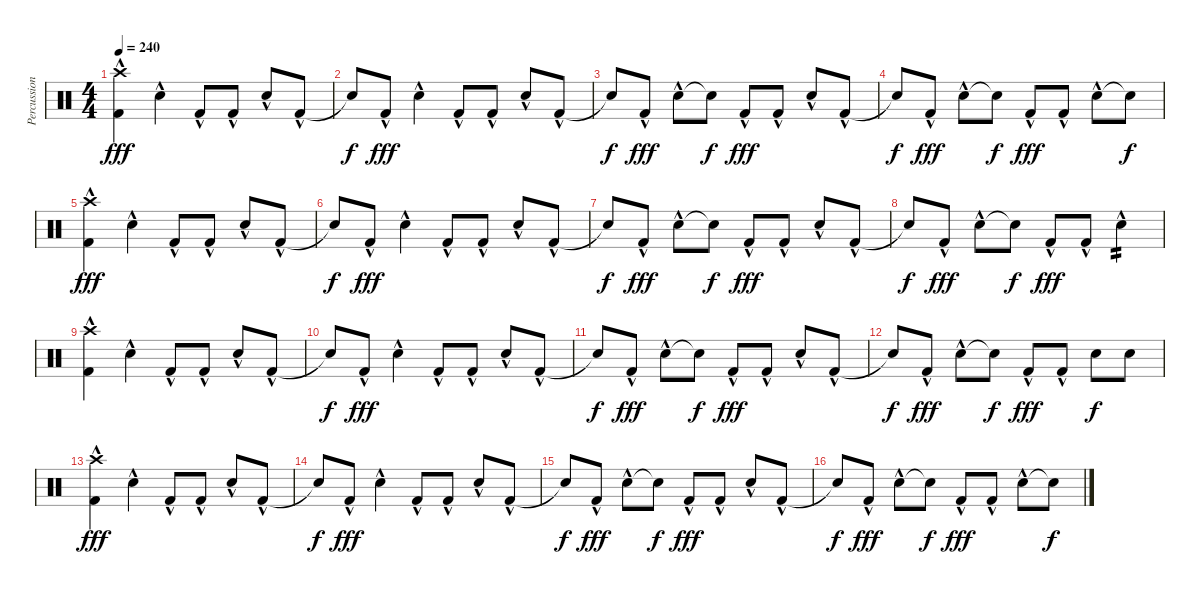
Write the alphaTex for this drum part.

\track ("Percussion" "Percussion") {instrument percussion}
\staff {score}
\articulation defaults
\ts (4 4)
\tempo 240
\clef neutral
\ks c
("Crash high (hit)" "Kick (hit) 2"{hac}).4{dy fff} "Electric Snare (hit)"{hac}.4 "Kick (hit) 2"{hac}.8 "Kick (hit) 2"{hac}.8 "Electric Snare (hit)"{hac}.8 "Kick (hit) 2"{hac}.8 |
"Snare (hit)"{t}.8{dy f} "Kick (hit) 2"{hac}.8{dy fff} "Electric Snare (hit)"{hac}.4 "Kick (hit) 2"{hac}.8 "Kick (hit) 2"{hac}.8 "Electric Snare (hit)"{hac}.8 "Kick (hit) 2"{hac}.8 |
"Snare (hit)"{t}.8{dy f} "Kick (hit) 2"{hac}.8{dy fff} "Electric Snare (hit)"{hac}.8 "Snare (hit)"{t}.8{dy f} "Kick (hit) 2"{hac}.8{dy fff} "Kick (hit) 2"{hac}.8 "Electric Snare (hit)"{hac}.8 "Kick (hit) 2"{hac}.8 |
"Snare (hit)"{t}.8{dy f} "Kick (hit) 2"{hac}.8{dy fff} "Electric Snare (hit)"{hac}.8 "Snare (hit)"{t}.8{dy f} "Kick (hit) 2"{hac}.8{dy fff} "Kick (hit) 2"{hac}.8 "Electric Snare (hit)"{hac}.8 "Snare (hit)"{t}.8{dy f} |
("Crash high (hit)" "Kick (hit) 2"{hac}).4{dy fff} "Electric Snare (hit)"{hac}.4 "Kick (hit) 2"{hac}.8 "Kick (hit) 2"{hac}.8 "Electric Snare (hit)"{hac}.8 "Kick (hit) 2"{hac}.8 |
"Snare (hit)"{t}.8{dy f} "Kick (hit) 2"{hac}.8{dy fff} "Electric Snare (hit)"{hac}.4 "Kick (hit) 2"{hac}.8 "Kick (hit) 2"{hac}.8 "Electric Snare (hit)"{hac}.8 "Kick (hit) 2"{hac}.8 |
"Snare (hit)"{t}.8{dy f} "Kick (hit) 2"{hac}.8{dy fff} "Electric Snare (hit)"{hac}.8 "Snare (hit)"{t}.8{dy f} "Kick (hit) 2"{hac}.8{dy fff} "Kick (hit) 2"{hac}.8 "Electric Snare (hit)"{hac}.8 "Kick (hit) 2"{hac}.8 |
"Snare (hit)"{t}.8{dy f} "Kick (hit) 2"{hac}.8{dy fff} "Electric Snare (hit)"{hac}.8 "Snare (hit)"{t}.8{dy f} "Kick (hit) 2"{hac}.8{dy fff} "Kick (hit) 2"{hac}.8 "Electric Snare (hit)"{hac}.4{tp 2} |
("Crash high (hit)" "Kick (hit) 2"{hac}).4 "Electric Snare (hit)"{hac}.4 "Kick (hit) 2"{hac}.8 "Kick (hit) 2"{hac}.8 "Electric Snare (hit)"{hac}.8 "Kick (hit) 2"{hac}.8 |
"Snare (hit)"{t}.8{dy f} "Kick (hit) 2"{hac}.8{dy fff} "Electric Snare (hit)"{hac}.4 "Kick (hit) 2"{hac}.8 "Kick (hit) 2"{hac}.8 "Electric Snare (hit)"{hac}.8 "Kick (hit) 2"{hac}.8 |
"Snare (hit)"{t}.8{dy f} "Kick (hit) 2"{hac}.8{dy fff} "Electric Snare (hit)"{hac}.8 "Snare (hit)"{t}.8{dy f} "Kick (hit) 2"{hac}.8{dy fff} "Kick (hit) 2"{hac}.8 "Electric Snare (hit)"{hac}.8 "Kick (hit) 2"{hac}.8 |
"Snare (hit)"{t}.8{dy f} "Kick (hit) 2"{hac}.8{dy fff} "Electric Snare (hit)"{hac}.8 "Snare (hit)"{t}.8{dy f} "Kick (hit) 2"{hac}.8{dy fff} "Kick (hit) 2"{hac}.8 "Electric Snare (hit)".8{dy f} "Electric Snare (hit)".8 |
("Crash high (hit)" "Kick (hit) 2"{hac}).4{dy fff} "Electric Snare (hit)"{hac}.4 "Kick (hit) 2"{hac}.8 "Kick (hit) 2"{hac}.8 "Electric Snare (hit)"{hac}.8 "Kick (hit) 2"{hac}.8 |
"Snare (hit)"{t}.8{dy f} "Kick (hit) 2"{hac}.8{dy fff} "Electric Snare (hit)"{hac}.4 "Kick (hit) 2"{hac}.8 "Kick (hit) 2"{hac}.8 "Electric Snare (hit)"{hac}.8 "Kick (hit) 2"{hac}.8 |
"Snare (hit)"{t}.8{dy f} "Kick (hit) 2"{hac}.8{dy fff} "Electric Snare (hit)"{hac}.8 "Snare (hit)"{t}.8{dy f} "Kick (hit) 2"{hac}.8{dy fff} "Kick (hit) 2"{hac}.8 "Electric Snare (hit)"{hac}.8 "Kick (hit) 2"{hac}.8 |
"Snare (hit)"{t}.8{dy f} "Kick (hit) 2"{hac}.8{dy fff} "Electric Snare (hit)"{hac}.8 "Snare (hit)"{t}.8{dy f} "Kick (hit) 2"{hac}.8{dy fff} "Kick (hit) 2"{hac}.8 "Electric Snare (hit)"{hac}.8 "Snare (hit)"{t}.8{dy f}
